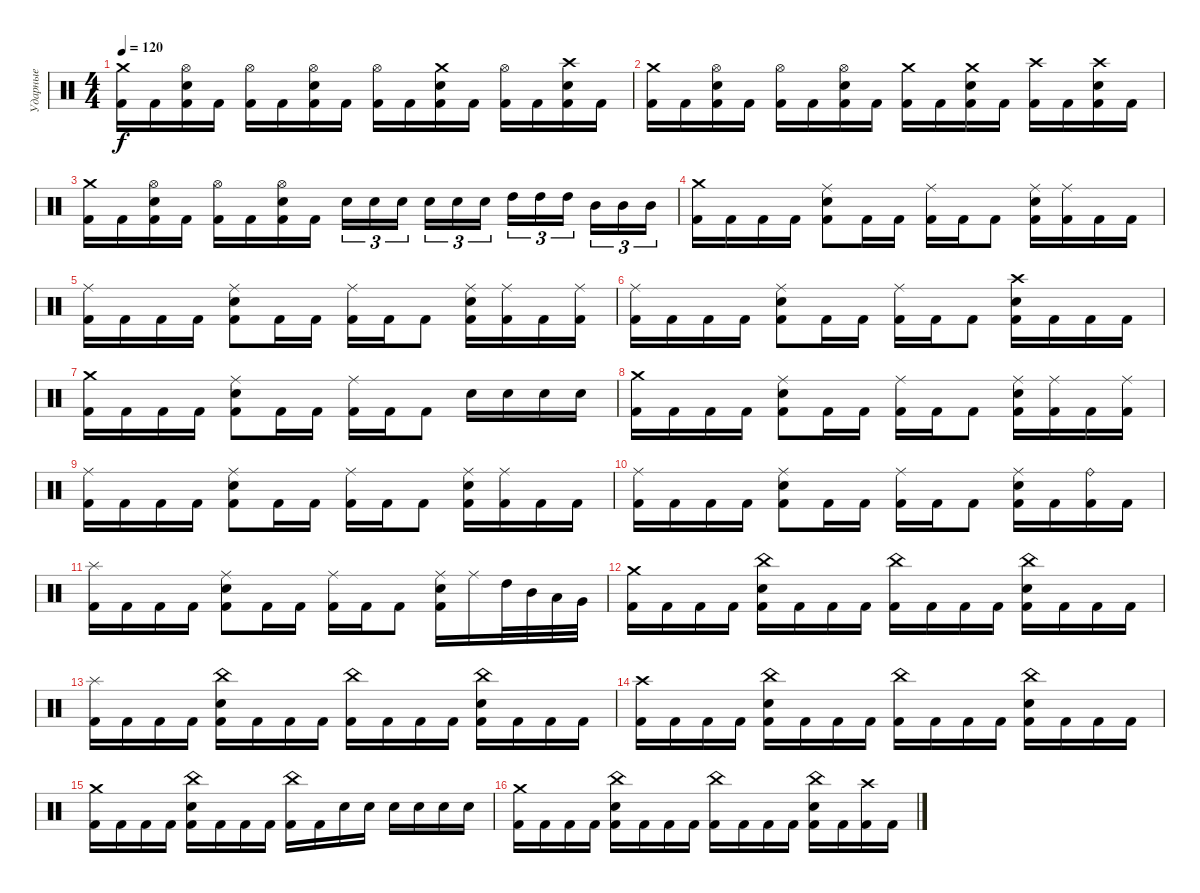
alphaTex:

\track ("Ударные" "Ударные") {instrument percussion}
\staff {score}
\articulation defaults
\ts (4 4)
\tempo 120
\clef neutral
\ks c
("Crash medium (hit)" "Kick (hit) 2").16{dy f} "Kick (hit) 2".16 ("Hi-Hat (open)" "Electric Snare (hit)" "Kick (hit) 2").16 "Kick (hit) 2".16 ("Hi-Hat (open)" "Kick (hit) 2").16 "Kick (hit) 2".16 ("Hi-Hat (open)" "Electric Snare (hit)" "Kick (hit) 2").16 "Kick (hit) 2".16 ("Hi-Hat (open)" "Kick (hit) 2").16 "Kick (hit) 2".16 ("Crash medium (hit)" "Electric Snare (hit)" "Kick (hit) 2").16 "Kick (hit) 2".16 ("Hi-Hat (open)" "Kick (hit) 2").16 "Kick (hit) 2".16 ("Crash high (hit)" "Electric Snare (hit)" "Kick (hit) 2").16 "Kick (hit) 2".16 |
("Crash medium (hit)" "Kick (hit) 2").16 "Kick (hit) 2".16 ("Hi-Hat (open)" "Electric Snare (hit)" "Kick (hit) 2").16 "Kick (hit) 2".16 ("Hi-Hat (open)" "Kick (hit) 2").16 "Kick (hit) 2".16 ("Hi-Hat (open)" "Electric Snare (hit)" "Kick (hit) 2").16 "Kick (hit) 2".16 ("Crash medium (hit)" "Kick (hit) 2").16 "Kick (hit) 2".16 ("Crash medium (hit)" "Electric Snare (hit)" "Kick (hit) 2").16 "Kick (hit) 2".16 ("Crash high (hit)" "Kick (hit) 2").16 "Kick (hit) 2".16 ("Crash high (hit)" "Electric Snare (hit)" "Kick (hit) 2").16 "Kick (hit) 2".16 |
("Crash medium (hit)" "Kick (hit) 2").16 "Kick (hit) 2".16 ("Hi-Hat (open)" "Electric Snare (hit)" "Kick (hit) 2").16 "Kick (hit) 2".16 ("Hi-Hat (open)" "Kick (hit) 2").16 "Kick (hit) 2".16 ("Hi-Hat (open)" "Electric Snare (hit)" "Kick (hit) 2").16 "Kick (hit) 2".16 "Electric Snare (hit)".16{tu (3 2)} "Electric Snare (hit)".16{tu (3 2)} "Electric Snare (hit)".16{tu (3 2) beam splitsecondary} "Electric Snare (hit)".16{tu (3 2)} "Electric Snare (hit)".16{tu (3 2)} "Electric Snare (hit)".16{tu (3 2)} "High Tom (hit)".16{tu (3 2)} "High Tom (hit)".16{tu (3 2)} "High Tom (hit)".16{tu (3 2) beam splitsecondary} "Mid Tom (hit)".16{tu (3 2)} "Mid Tom (hit)".16{tu (3 2)} "Mid Tom (hit)".16{tu (3 2)} |
("Crash medium (hit)" "Kick (hit) 2").16 "Kick (hit) 2".16 "Kick (hit) 2".16 "Kick (hit) 2".16 ("Ride (middle)" "Electric Snare (hit)" "Kick (hit) 2").8 "Kick (hit) 2".16 "Kick (hit) 2".16 ("Ride (middle)" "Kick (hit) 2").16 "Kick (hit) 2".16 "Kick (hit) 2".8 ("Ride (middle)" "Electric Snare (hit)" "Kick (hit) 2").16 ("Ride (middle)" "Kick (hit) 2").16 "Kick (hit) 2".16 "Kick (hit) 2".16 |
("Ride (middle)" "Kick (hit) 2").16 "Kick (hit) 2".16 "Kick (hit) 2".16 "Kick (hit) 2".16 ("Ride (middle)" "Electric Snare (hit)" "Kick (hit) 2").8 "Kick (hit) 2".16 "Kick (hit) 2".16 ("Ride (middle)" "Kick (hit) 2").16 "Kick (hit) 2".16 "Kick (hit) 2".8 ("Ride (middle)" "Electric Snare (hit)" "Kick (hit) 2").16 ("Ride (middle)" "Kick (hit) 2").16 "Kick (hit) 2".16 ("Ride (middle)" "Kick (hit) 2").16 |
("Ride (middle)" "Kick (hit) 2").16 "Kick (hit) 2".16 "Kick (hit) 2".16 "Kick (hit) 2".16 ("Ride (middle)" "Electric Snare (hit)" "Kick (hit) 2").8 "Kick (hit) 2".16 "Kick (hit) 2".16 ("Ride (middle)" "Kick (hit) 2").16 "Kick (hit) 2".16 "Kick (hit) 2".8 ("Crash high (hit)" "Electric Snare (hit)" "Kick (hit) 2").16 "Kick (hit) 2".16 "Kick (hit) 2".16 "Kick (hit) 2".16 |
("Crash medium (hit)" "Kick (hit) 2").16 "Kick (hit) 2".16 "Kick (hit) 2".16 "Kick (hit) 2".16 ("Ride (middle)" "Electric Snare (hit)" "Kick (hit) 2").8 "Kick (hit) 2".16 "Kick (hit) 2".16 ("Ride (middle)" "Kick (hit) 2").16 "Kick (hit) 2".16 "Kick (hit) 2".8 "Electric Snare (hit)".16 "Electric Snare (hit)".16 "Electric Snare (hit)".16 "Electric Snare (hit)".16 |
("Crash medium (hit)" "Kick (hit) 2").16 "Kick (hit) 2".16 "Kick (hit) 2".16 "Kick (hit) 2".16 ("Ride (middle)" "Electric Snare (hit)" "Kick (hit) 2").8 "Kick (hit) 2".16 "Kick (hit) 2".16 ("Ride (middle)" "Kick (hit) 2").16 "Kick (hit) 2".16 "Kick (hit) 2".8 ("Ride (middle)" "Electric Snare (hit)" "Kick (hit) 2").16 ("Ride (middle)" "Kick (hit) 2").16 "Kick (hit) 2".16 ("Ride (middle)" "Kick (hit) 2").16 |
("Ride (middle)" "Kick (hit) 2").16 "Kick (hit) 2".16 "Kick (hit) 2".16 "Kick (hit) 2".16 ("Ride (middle)" "Electric Snare (hit)" "Kick (hit) 2").8 "Kick (hit) 2".16 "Kick (hit) 2".16 ("Ride (middle)" "Kick (hit) 2").16 "Kick (hit) 2".16 "Kick (hit) 2".8 ("Ride (middle)" "Electric Snare (hit)" "Kick (hit) 2").16 ("Ride (middle)" "Kick (hit) 2").16 "Kick (hit) 2".16 "Kick (hit) 2".16 |
("Ride (middle)" "Kick (hit) 2").16 "Kick (hit) 2".16 "Kick (hit) 2".16 "Kick (hit) 2".16 ("Ride (middle)" "Electric Snare (hit)" "Kick (hit) 2").8 "Kick (hit) 2".16 "Kick (hit) 2".16 ("Ride (middle)" "Kick (hit) 2").16 "Kick (hit) 2".16 "Kick (hit) 2".8 ("Ride (middle)" "Electric Snare (hit)" "Kick (hit) 2").16 "Kick (hit) 2".16 ("Ride (bell)" "Kick (hit) 2").16 "Kick (hit) 2".16 |
("Splash (hit)" "Kick (hit) 2").16 "Kick (hit) 2".16 "Kick (hit) 2".16 "Kick (hit) 2".16 ("Ride (middle)" "Electric Snare (hit)" "Kick (hit) 2").8 "Kick (hit) 2".16 "Kick (hit) 2".16 ("Ride (middle)" "Kick (hit) 2").16 "Kick (hit) 2".16 "Kick (hit) 2".8 ("Ride (middle)" "Electric Snare (hit)" "Kick (hit) 2").16 "Ride (middle)".16 "High Tom (hit)".32 "Mid Tom (hit)".32 "Low Tom (hit)".32 "Very Low Tom (hit)".32 |
("Crash medium (hit)" "Kick (hit) 2").16 "Kick (hit) 2".16 "Kick (hit) 2".16 "Kick (hit) 2".16 ("China (hit)" "Electric Snare (hit)" "Kick (hit) 2").16 "Kick (hit) 2".16 "Kick (hit) 2".16 "Kick (hit) 2".16 ("China (hit)" "Kick (hit) 2").16 "Kick (hit) 2".16 "Kick (hit) 2".16 "Kick (hit) 2".16 ("China (hit)" "Electric Snare (hit)" "Kick (hit) 2").16 "Kick (hit) 2".16 "Kick (hit) 2".16 "Kick (hit) 2".16 |
("Splash (hit)" "Kick (hit) 2").16 "Kick (hit) 2".16 "Kick (hit) 2".16 "Kick (hit) 2".16 ("China (hit)" "Electric Snare (hit)" "Kick (hit) 2").16 "Kick (hit) 2".16 "Kick (hit) 2".16 "Kick (hit) 2".16 ("China (hit)" "Kick (hit) 2").16 "Kick (hit) 2".16 "Kick (hit) 2".16 "Kick (hit) 2".16 ("China (hit)" "Electric Snare (hit)" "Kick (hit) 2").16 "Kick (hit) 2".16 "Kick (hit) 2".16 "Kick (hit) 2".16 |
("Crash high (hit)" "Kick (hit) 2").16 "Kick (hit) 2".16 "Kick (hit) 2".16 "Kick (hit) 2".16 ("China (hit)" "Electric Snare (hit)" "Kick (hit) 2").16 "Kick (hit) 2".16 "Kick (hit) 2".16 "Kick (hit) 2".16 ("China (hit)" "Kick (hit) 2").16 "Kick (hit) 2".16 "Kick (hit) 2".16 "Kick (hit) 2".16 ("China (hit)" "Electric Snare (hit)" "Kick (hit) 2").16 "Kick (hit) 2".16 "Kick (hit) 2".16 "Kick (hit) 2".16 |
("Crash medium (hit)" "Kick (hit) 2").16 "Kick (hit) 2".16 "Kick (hit) 2".16 "Kick (hit) 2".16 ("China (hit)" "Electric Snare (hit)" "Kick (hit) 2").16 "Kick (hit) 2".16 "Kick (hit) 2".16 "Kick (hit) 2".16 ("China (hit)" "Kick (hit) 2").16 "Kick (hit) 2".16 "Electric Snare (hit)".16 "Electric Snare (hit)".16 "Electric Snare (hit)".16 "Electric Snare (hit)".16 "Electric Snare (hit)".16 "Electric Snare (hit)".16 |
("Crash medium (hit)" "Kick (hit) 2").16 "Kick (hit) 2".16 "Kick (hit) 2".16 "Kick (hit) 2".16 ("China (hit)" "Electric Snare (hit)" "Kick (hit) 2").16 "Kick (hit) 2".16 "Kick (hit) 2".16 "Kick (hit) 2".16 ("China (hit)" "Kick (hit) 2").16 "Kick (hit) 2".16 "Kick (hit) 2".16 "Kick (hit) 2".16 ("China (hit)" "Electric Snare (hit)" "Kick (hit) 2").16 "Kick (hit) 2".16 ("Crash high (hit)" "Kick (hit) 2").16 "Kick (hit) 2".16
